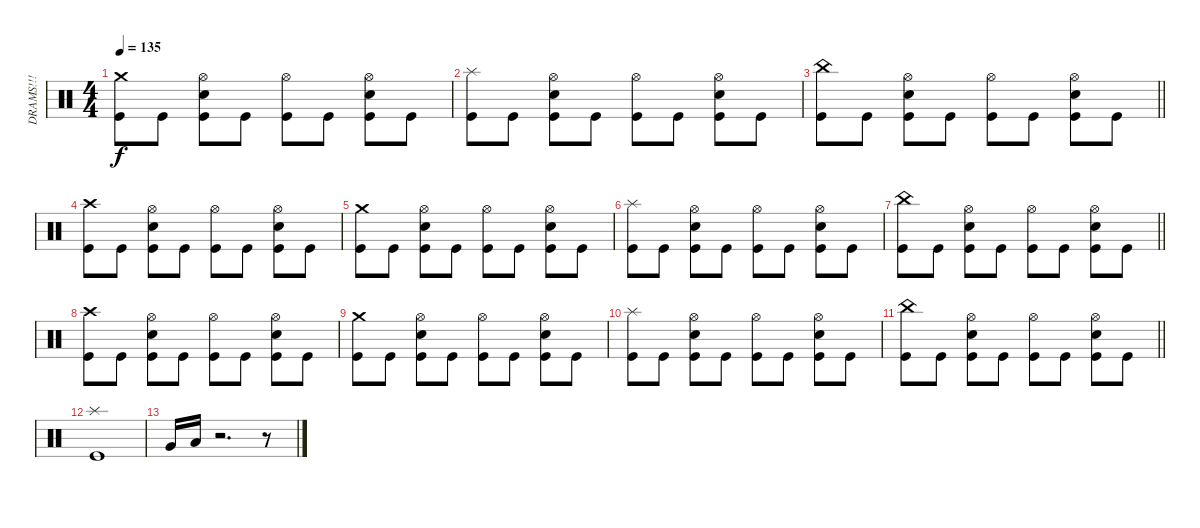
\track ("DRAMS!!!" "DRAMS!!!") {instrument percussion}
\staff {score}
\articulation defaults
\ts (4 4)
\tempo 135
\clef neutral
\ks c
("Kick (hit)" "Crash medium (hit)").8{dy f} "Kick (hit)".8 ("Kick (hit)" "Electric Snare (hit)" "Hi-Hat (open)").8 "Kick (hit)".8 ("Kick (hit)" "Hi-Hat (open)").8 "Kick (hit)".8 ("Kick (hit)" "Electric Snare (hit)" "Hi-Hat (open)").8 "Kick (hit)".8 |
("Kick (hit)" "Splash (hit)").8 "Kick (hit)".8 ("Kick (hit)" "Electric Snare (hit)" "Hi-Hat (open)").8 "Kick (hit)".8 ("Kick (hit)" "Hi-Hat (open)").8 "Kick (hit)".8 ("Kick (hit)" "Electric Snare (hit)" "Hi-Hat (open)").8 "Kick (hit)".8 |
\barLineRight lightlight
("Kick (hit)" "China (hit)").8 "Kick (hit)".8 ("Kick (hit)" "Electric Snare (hit)" "Hi-Hat (open)").8 "Kick (hit)".8 ("Kick (hit)" "Hi-Hat (open)").8 "Kick (hit)".8 ("Kick (hit)" "Electric Snare (hit)" "Hi-Hat (open)").8 "Kick (hit)".8 |
("Kick (hit)" "Crash high (hit)").8 "Kick (hit)".8 ("Kick (hit)" "Electric Snare (hit)" "Hi-Hat (open)").8 "Kick (hit)".8 ("Kick (hit)" "Hi-Hat (open)").8 "Kick (hit)".8 ("Kick (hit)" "Electric Snare (hit)" "Hi-Hat (open)").8 "Kick (hit)".8 |
("Kick (hit)" "Crash medium (hit)").8 "Kick (hit)".8 ("Kick (hit)" "Electric Snare (hit)" "Hi-Hat (open)").8 "Kick (hit)".8 ("Kick (hit)" "Hi-Hat (open)").8 "Kick (hit)".8 ("Kick (hit)" "Electric Snare (hit)" "Hi-Hat (open)").8 "Kick (hit)".8 |
("Kick (hit)" "Splash (hit)").8 "Kick (hit)".8 ("Kick (hit)" "Electric Snare (hit)" "Hi-Hat (open)").8 "Kick (hit)".8 ("Kick (hit)" "Hi-Hat (open)").8 "Kick (hit)".8 ("Kick (hit)" "Electric Snare (hit)" "Hi-Hat (open)").8 "Kick (hit)".8 |
\barLineRight lightlight
("Kick (hit)" "China (hit)").8 "Kick (hit)".8 ("Kick (hit)" "Electric Snare (hit)" "Hi-Hat (open)").8 "Kick (hit)".8 ("Kick (hit)" "Hi-Hat (open)").8 "Kick (hit)".8 ("Kick (hit)" "Electric Snare (hit)" "Hi-Hat (open)").8 "Kick (hit)".8 |
("Kick (hit)" "Crash high (hit)").8 "Kick (hit)".8 ("Kick (hit)" "Electric Snare (hit)" "Hi-Hat (open)").8 "Kick (hit)".8 ("Kick (hit)" "Hi-Hat (open)").8 "Kick (hit)".8 ("Kick (hit)" "Electric Snare (hit)" "Hi-Hat (open)").8 "Kick (hit)".8 |
("Kick (hit)" "Crash medium (hit)").8 "Kick (hit)".8 ("Kick (hit)" "Electric Snare (hit)" "Hi-Hat (open)").8 "Kick (hit)".8 ("Kick (hit)" "Hi-Hat (open)").8 "Kick (hit)".8 ("Kick (hit)" "Electric Snare (hit)" "Hi-Hat (open)").8 "Kick (hit)".8 |
("Kick (hit)" "Splash (hit)").8 "Kick (hit)".8 ("Kick (hit)" "Electric Snare (hit)" "Hi-Hat (open)").8 "Kick (hit)".8 ("Kick (hit)" "Hi-Hat (open)").8 "Kick (hit)".8 ("Kick (hit)" "Electric Snare (hit)" "Hi-Hat (open)").8 "Kick (hit)".8 |
\barLineRight lightlight
("Kick (hit)" "China (hit)").8 "Kick (hit)".8 ("Kick (hit)" "Electric Snare (hit)" "Hi-Hat (open)").8 "Kick (hit)".8 ("Kick (hit)" "Hi-Hat (open)").8 "Kick (hit)".8 ("Kick (hit)" "Electric Snare (hit)" "Hi-Hat (open)").8 "Kick (hit)".8 |
("Kick (hit)" "Splash (hit)").1 |
"Very Low Tom (hit)".16 "Low Floor Tom (hit)".16 r.2{d} r.8
